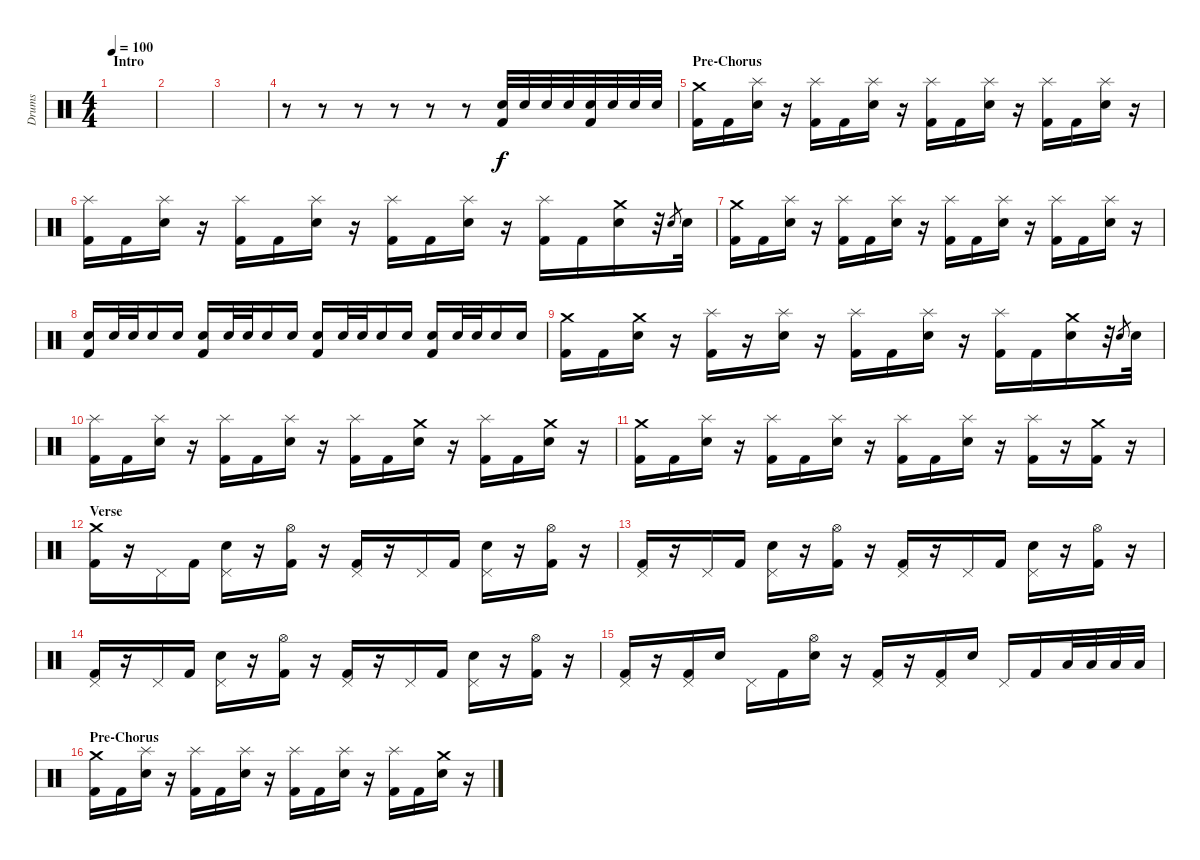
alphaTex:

\track ("Drums" "Drums") {instrument percussion}
\staff {score}
\articulation defaults
\ts (4 4)
\section ("" "Intro")
\tempo 100
\clef neutral
\ks c
|
|
|
r.8 r.8 r.8 r.8 r.8 r.8 ("Electric Snare (hit)" "Kick (hit) 2").32 "Electric Snare (hit)".32 "Electric Snare (hit)".32 "Electric Snare (hit)".32 ("Electric Snare (hit)" "Kick (hit) 2").32 "Electric Snare (hit)".32 "Electric Snare (hit)".32 "Electric Snare (hit)".32 |
\section ("" "Pre-Chorus")
("Crash medium (hit)" "Kick (hit) 2").16 "Kick (hit) 2".16 ("Splash (hit)" "Electric Snare (hit)").16 r.16 ("Splash (hit)" "Kick (hit) 2").16 "Kick (hit) 2".16 ("Splash (hit)" "Electric Snare (hit)").16 r.16 ("Splash (hit)" "Kick (hit) 2").16 "Kick (hit) 2".16 ("Splash (hit)" "Electric Snare (hit)").16 r.16 ("Splash (hit)" "Kick (hit) 2").16 "Kick (hit) 2".16 ("Splash (hit)" "Electric Snare (hit)").16 r.16 |
("Splash (hit)" "Kick (hit) 2").16 "Kick (hit) 2".16 ("Splash (hit)" "Electric Snare (hit)").16 r.16 ("Splash (hit)" "Kick (hit) 2").16 "Kick (hit) 2".16 ("Splash (hit)" "Electric Snare (hit)").16 r.16 ("Splash (hit)" "Kick (hit) 2").16 "Kick (hit) 2".16 ("Splash (hit)" "Electric Snare (hit)").16 r.16 ("Splash (hit)" "Kick (hit) 2").16 "Kick (hit) 2".16 ("Crash medium (hit)" "Electric Snare (hit)").16 r.32 "Electric Snare (hit)".8{gr} "Electric Snare (hit)".32 |
("Crash medium (hit)" "Kick (hit) 2").16 "Kick (hit) 2".16 ("Splash (hit)" "Electric Snare (hit)").16 r.16 ("Splash (hit)" "Kick (hit) 2").16 "Kick (hit) 2".16 ("Splash (hit)" "Electric Snare (hit)").16 r.16 ("Splash (hit)" "Kick (hit) 2").16 "Kick (hit) 2".16 ("Splash (hit)" "Electric Snare (hit)").16 r.16 ("Splash (hit)" "Kick (hit) 2").16 "Kick (hit) 2".16 ("Splash (hit)" "Electric Snare (hit)").16 r.16 |
("Electric Snare (hit)" "Kick (hit) 2").16 "Electric Snare (hit)".32 "Electric Snare (hit)".32 "Electric Snare (hit)".16 "Electric Snare (hit)".16 ("Electric Snare (hit)" "Kick (hit) 2").16 "Electric Snare (hit)".32 "Electric Snare (hit)".32 "Electric Snare (hit)".16 "Electric Snare (hit)".16 ("Electric Snare (hit)" "Kick (hit) 2").16 "Electric Snare (hit)".32 "Electric Snare (hit)".32 "Electric Snare (hit)".16 "Electric Snare (hit)".16 ("Electric Snare (hit)" "Kick (hit) 2").16 "Electric Snare (hit)".32 "Electric Snare (hit)".32 "Electric Snare (hit)".16 "Electric Snare (hit)".16 |
("Crash medium (hit)" "Kick (hit) 2").16 "Kick (hit) 2".16 ("Crash medium (hit)" "Electric Snare (hit)").16 r.16 ("Splash (hit)" "Kick (hit) 2").16 r.16 ("Splash (hit)" "Electric Snare (hit)").16 r.16 ("Splash (hit)" "Kick (hit) 2").16 "Kick (hit) 2".16 ("Splash (hit)" "Electric Snare (hit)").16 r.16 ("Splash (hit)" "Kick (hit) 2").16 "Kick (hit) 2".16 ("Crash medium (hit)" "Electric Snare (hit)").16 r.32 "Electric Snare (hit)".8{gr} "Electric Snare (hit)".32 |
("Splash (hit)" "Kick (hit) 2").16 "Kick (hit) 2".16 ("Splash (hit)" "Electric Snare (hit)").16 r.16 ("Splash (hit)" "Kick (hit) 2").16 "Kick (hit) 2".16 ("Splash (hit)" "Electric Snare (hit)").16 r.16 ("Splash (hit)" "Kick (hit) 2").16 "Kick (hit) 2".16 ("Crash medium (hit)" "Electric Snare (hit)").16 r.16 ("Splash (hit)" "Kick (hit) 2").16 "Kick (hit) 2".16 ("Crash medium (hit)" "Electric Snare (hit)").16 r.16 |
("Crash medium (hit)" "Kick (hit) 2").16 "Kick (hit) 2".16 ("Splash (hit)" "Electric Snare (hit)").16 r.16 ("Splash (hit)" "Kick (hit) 2").16 "Kick (hit) 2".16 ("Splash (hit)" "Electric Snare (hit)").16 r.16 ("Splash (hit)" "Kick (hit) 2").16 "Kick (hit) 2".16 ("Splash (hit)" "Electric Snare (hit)").16 r.16 ("Splash (hit)" "Kick (hit) 2").16 r.16 ("Crash medium (hit)" "Kick (hit) 2").16 r.16 |
\section ("" "Verse")
("Crash medium (hit)" "Kick (hit) 2").16 r.16 "Pedal Hi-Hat (hit)".16 "Kick (hit) 2".16 ("Pedal Hi-Hat (hit)" "Electric Snare (hit)").16 r.16 ("Hi-Hat (open)" "Kick (hit) 2").16 r.16 ("Pedal Hi-Hat (hit)" "Kick (hit) 2").16 r.16 "Pedal Hi-Hat (hit)".16 "Kick (hit) 2".16 ("Pedal Hi-Hat (hit)" "Electric Snare (hit)").16 r.16 ("Hi-Hat (open)" "Kick (hit) 2").16 r.16 |
("Pedal Hi-Hat (hit)" "Kick (hit) 2").16 r.16 "Pedal Hi-Hat (hit)".16 "Kick (hit) 2".16 ("Pedal Hi-Hat (hit)" "Electric Snare (hit)").16 r.16 ("Hi-Hat (open)" "Kick (hit) 2").16 r.16 ("Pedal Hi-Hat (hit)" "Kick (hit) 2").16 r.16 "Pedal Hi-Hat (hit)".16 "Kick (hit) 2".16 ("Pedal Hi-Hat (hit)" "Electric Snare (hit)").16 r.16 ("Hi-Hat (open)" "Kick (hit) 2").16 r.16 |
("Pedal Hi-Hat (hit)" "Kick (hit) 2").16 r.16 "Pedal Hi-Hat (hit)".16 "Kick (hit) 2".16 ("Pedal Hi-Hat (hit)" "Electric Snare (hit)").16 r.16 ("Hi-Hat (open)" "Kick (hit) 2").16 r.16 ("Pedal Hi-Hat (hit)" "Kick (hit) 2").16 r.16 "Pedal Hi-Hat (hit)".16 "Kick (hit) 2".16 ("Pedal Hi-Hat (hit)" "Electric Snare (hit)").16 r.16 ("Hi-Hat (open)" "Kick (hit) 2").16 r.16 |
("Pedal Hi-Hat (hit)" "Kick (hit) 2").16 r.16 ("Pedal Hi-Hat (hit)" "Kick (hit) 2").16 "Electric Snare (hit)".16 "Pedal Hi-Hat (hit)".16 "Kick (hit) 2".16 ("Hi-Hat (open)" "Electric Snare (hit)").16 r.16 ("Pedal Hi-Hat (hit)" "Kick (hit) 2").16 r.16 ("Pedal Hi-Hat (hit)" "Kick (hit) 2").16 "Electric Snare (hit)".16 "Pedal Hi-Hat (hit)".16 "Kick (hit) 2".16 "Low Tom (hit)".32 "Low Tom (hit)".32 "Low Tom (hit)".32 "Low Tom (hit)".32 |
\section ("" "Pre-Chorus")
("Crash medium (hit)" "Kick (hit) 2").16 "Kick (hit) 2".16 ("Splash (hit)" "Electric Snare (hit)").16 r.16 ("Splash (hit)" "Kick (hit) 2").16 "Kick (hit) 2".16 ("Splash (hit)" "Electric Snare (hit)").16 r.16 ("Splash (hit)" "Kick (hit) 2").16 "Kick (hit) 2".16 ("Splash (hit)" "Electric Snare (hit)").16 r.16 ("Splash (hit)" "Kick (hit) 2").16 "Kick (hit) 2".16 ("Crash medium (hit)" "Electric Snare (hit)").16 r.16
